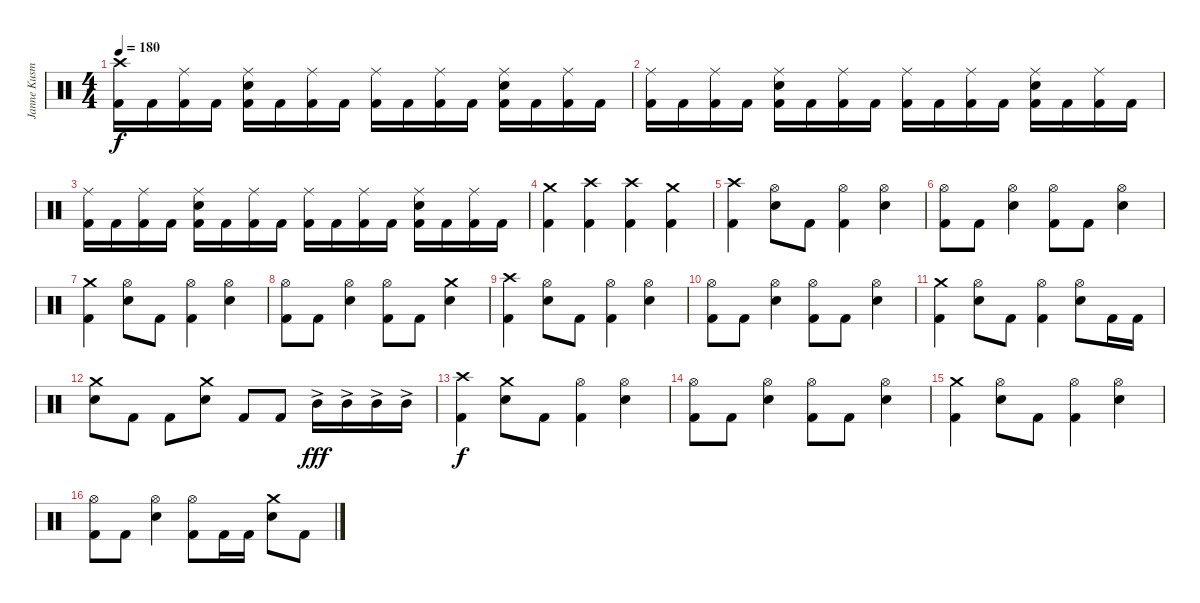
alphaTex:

\track ("Janne Kusmin - Drums" "Janne Kusm") {instrument percussion}
\staff {score}
\articulation defaults
\ts (4 4)
\tempo 180
\clef neutral
\ks c
("Crash high (hit)" "Kick (hit) 2").16{dy f} "Kick (hit) 2".16 ("Ride (middle)" "Kick (hit) 2").16 "Kick (hit) 2".16 ("Ride (middle)" "Electric Snare (hit)" "Kick (hit) 2").16 "Kick (hit) 2".16 ("Ride (middle)" "Kick (hit) 2").16 "Kick (hit) 2".16 ("Ride (middle)" "Kick (hit) 2").16 "Kick (hit) 2".16 ("Ride (middle)" "Kick (hit) 2").16 "Kick (hit) 2".16 ("Ride (middle)" "Electric Snare (hit)" "Kick (hit) 2").16 "Kick (hit) 2".16 ("Ride (middle)" "Kick (hit) 2").16 "Kick (hit) 2".16 |
("Ride (middle)" "Kick (hit) 2").16 "Kick (hit) 2".16 ("Ride (middle)" "Kick (hit) 2").16 "Kick (hit) 2".16 ("Ride (middle)" "Electric Snare (hit)" "Kick (hit) 2").16 "Kick (hit) 2".16 ("Ride (middle)" "Kick (hit) 2").16 "Kick (hit) 2".16 ("Ride (middle)" "Kick (hit) 2").16 "Kick (hit) 2".16 ("Ride (middle)" "Kick (hit) 2").16 "Kick (hit) 2".16 ("Ride (middle)" "Electric Snare (hit)" "Kick (hit) 2").16 "Kick (hit) 2".16 ("Ride (middle)" "Kick (hit) 2").16 "Kick (hit) 2".16 |
("Ride (middle)" "Kick (hit) 2").16 "Kick (hit) 2".16 ("Ride (middle)" "Kick (hit) 2").16 "Kick (hit) 2".16 ("Ride (middle)" "Electric Snare (hit)" "Kick (hit) 2").16 "Kick (hit) 2".16 ("Ride (middle)" "Kick (hit) 2").16 "Kick (hit) 2".16 ("Ride (middle)" "Kick (hit) 2").16 "Kick (hit) 2".16 ("Ride (middle)" "Kick (hit) 2").16 "Kick (hit) 2".16 ("Ride (middle)" "Electric Snare (hit)" "Kick (hit) 2").16 "Kick (hit) 2".16 ("Ride (middle)" "Kick (hit) 2").16 "Kick (hit) 2".16 |
("Crash medium (hit)" "Kick (hit) 2").4 ("Crash high (hit)" "Kick (hit) 2").4 ("Crash high (hit)" "Kick (hit) 2").4 ("Crash medium (hit)" "Kick (hit) 2").4 |
\section ("" "")
("Crash high (hit)" "Kick (hit) 2").4 ("Hi-Hat (open)" "Electric Snare (hit)").8 "Kick (hit) 2".8 ("Hi-Hat (open)" "Kick (hit) 2").4 ("Hi-Hat (open)" "Electric Snare (hit)").4 |
("Hi-Hat (open)" "Kick (hit) 2").8 "Kick (hit) 2".8 ("Hi-Hat (open)" "Electric Snare (hit)").4 ("Hi-Hat (open)" "Kick (hit) 2").8 "Kick (hit) 2".8 ("Hi-Hat (open)" "Electric Snare (hit)").4 |
("Crash medium (hit)" "Kick (hit) 2").4 ("Hi-Hat (open)" "Electric Snare (hit)").8 "Kick (hit) 2".8 ("Hi-Hat (open)" "Kick (hit) 2").4 ("Hi-Hat (open)" "Electric Snare (hit)").4 |
("Hi-Hat (open)" "Kick (hit) 2").8 "Kick (hit) 2".8 ("Hi-Hat (open)" "Electric Snare (hit)").4 ("Hi-Hat (open)" "Kick (hit) 2").8 "Kick (hit) 2".8 ("Crash medium (hit)" "Electric Snare (hit)").4 |
("Crash high (hit)" "Kick (hit) 2").4 ("Hi-Hat (open)" "Electric Snare (hit)").8 "Kick (hit) 2".8 ("Hi-Hat (open)" "Kick (hit) 2").4 ("Hi-Hat (open)" "Electric Snare (hit)").4 |
("Hi-Hat (open)" "Kick (hit) 2").8 "Kick (hit) 2".8 ("Hi-Hat (open)" "Electric Snare (hit)").4 ("Hi-Hat (open)" "Kick (hit) 2").8 "Kick (hit) 2".8 ("Hi-Hat (open)" "Electric Snare (hit)").4 |
("Crash medium (hit)" "Kick (hit) 2").4 ("Hi-Hat (open)" "Electric Snare (hit)").8 "Kick (hit) 2".8 ("Hi-Hat (open)" "Kick (hit) 2").4 ("Hi-Hat (open)" "Electric Snare (hit)").8 "Kick (hit) 2".16 "Kick (hit) 2".16 |
("Crash medium (hit)" "Electric Snare (hit)").8 "Kick (hit) 2".8 "Kick (hit) 2".8 ("Crash medium (hit)" "Electric Snare (hit)").8 "Kick (hit) 2".8 "Kick (hit) 2".8 "Mid Tom (hit)"{ac}.16{dy fff} "Mid Tom (hit)"{ac}.16 "Mid Tom (hit)"{ac}.16 "Mid Tom (hit)"{ac}.16 |
("Crash high (hit)" "Kick (hit) 2").4{dy f} ("Crash medium (hit)" "Electric Snare (hit)").8 "Kick (hit) 2".8 ("Hi-Hat (open)" "Kick (hit) 2").4 ("Hi-Hat (open)" "Electric Snare (hit)").4 |
("Hi-Hat (open)" "Kick (hit) 2").8 "Kick (hit) 2".8 ("Hi-Hat (open)" "Electric Snare (hit)").4 ("Hi-Hat (open)" "Kick (hit) 2").8 "Kick (hit) 2".8 ("Hi-Hat (open)" "Electric Snare (hit)").4 |
("Crash medium (hit)" "Kick (hit) 2").4 ("Hi-Hat (open)" "Electric Snare (hit)").8 "Kick (hit) 2".8 ("Hi-Hat (open)" "Kick (hit) 2").4 ("Hi-Hat (open)" "Electric Snare (hit)").4 |
("Hi-Hat (open)" "Kick (hit) 2").8 "Kick (hit) 2".8 ("Hi-Hat (open)" "Electric Snare (hit)").4 ("Hi-Hat (open)" "Kick (hit) 2").8 "Kick (hit) 2".16 "Kick (hit) 2".16 ("Crash medium (hit)" "Electric Snare (hit)").8 "Kick (hit) 2".8
